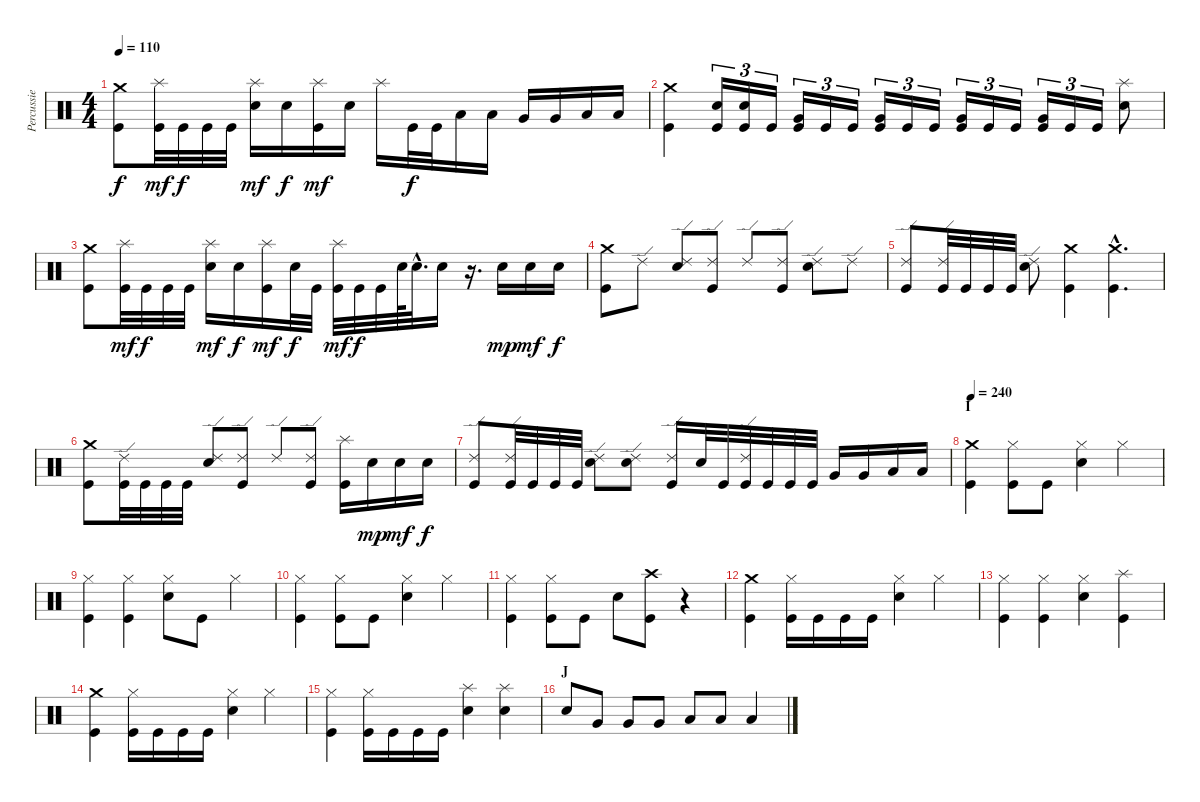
\track ("Percussie" "Percussie") {instrument percussion}
\staff {score}
\articulation defaults
\ts (4 4)
\tempo 110
\clef neutral
\ks c
("Crash medium (hit)" "Kick (hit)").8{dy f} ("Splash (hit)" "Kick (hit)").32{dy mf} "Kick (hit)".32{dy f} "Kick (hit)".32 "Kick (hit)".32 ("Splash (hit)" "Electric Snare (hit)").16{dy mf} "Electric Snare (hit)".16{dy f} ("Splash (hit)" "Kick (hit)").16{dy mf} "Electric Snare (hit)".16 "Splash (hit)".16 "Kick (hit)".32{dy f} "Kick (hit)".32 "Low Tom (hit)".16 "Low Tom (hit)".16 "Very Low Tom (hit)".16 "Very Low Tom (hit)".16 "Low Floor Tom (hit)".16 "Low Floor Tom (hit)".16 |
("Crash medium (hit)" "Kick (hit)").4 ("Electric Snare (hit)" "Kick (hit)").16{tu (3 2)} ("Electric Snare (hit)" "Kick (hit)").16{tu (3 2)} "Kick (hit)".16{tu (3 2)} ("Very Low Tom (hit)" "Kick (hit)").16{tu (3 2)} "Kick (hit)".16{tu (3 2)} "Kick (hit)".16{tu (3 2)} ("Very Low Tom (hit)" "Kick (hit)").16{tu (3 2)} "Kick (hit)".16{tu (3 2)} "Kick (hit)".16{tu (3 2)} ("Very Low Tom (hit)" "Kick (hit)").16{tu (3 2)} "Kick (hit)".16{tu (3 2)} "Kick (hit)".16{tu (3 2)} ("Very Low Tom (hit)" "Kick (hit)").16{tu (3 2)} "Kick (hit)".16{tu (3 2)} "Kick (hit)".16{tu (3 2)} ("Splash (hit)" "Electric Snare (hit)").8 |
("Crash medium (hit)" "Kick (hit)").8 ("Splash (hit)" "Kick (hit)").32{dy mf} "Kick (hit)".32{dy f} "Kick (hit)".32 "Kick (hit)".32 ("Splash (hit)" "Electric Snare (hit)").16{dy mf} "Electric Snare (hit)".16{dy f} ("Splash (hit)" "Kick (hit)").16{dy mf} "Electric Snare (hit)".32{dy f} "Kick (hit)".32 ("Splash (hit)" "Kick (hit)").32{dy mf} "Kick (hit)".32{dy f} "Kick (hit)".32 "Electric Snare (hit)".64 "Electric Snare (hit)"{hac}.32{d} "Electric Snare (hit)".16 r.16{d} "Electric Snare (hit)".16{dy mp} "Electric Snare (hit)".16{dy mf} "Electric Snare (hit)".16{dy f} |
("Crash medium (hit)" "Kick (hit)").8 "Ride (edge) 2".8 ("Ride (edge) 2" "Electric Snare (hit)").8 ("Ride (edge) 2" "Kick (hit)").8 "Ride (edge) 2".8 ("Ride (edge) 2" "Kick (hit)").8 ("Ride (edge) 2" "Electric Snare (hit)").8 "Ride (edge) 2".8 |
("Ride (edge) 2" "Kick (hit)").8 ("Ride (edge) 2" "Kick (hit)").32 "Kick (hit)".32 "Kick (hit)".32 "Kick (hit)".32 ("Ride (edge) 2" "Electric Snare (hit)").8 ("Crash medium (hit)" "Kick (hit)").4 ("Crash medium (hit)"{hac} "Kick (hit)"{hac}).4{d} |
("Crash medium (hit)" "Kick (hit)").8 ("Ride (edge) 2" "Kick (hit)").32 "Kick (hit)".32 "Kick (hit)".32 "Kick (hit)".32 ("Ride (edge) 2" "Electric Snare (hit)").8 ("Ride (edge) 2" "Kick (hit)").8 "Ride (edge) 2".8 ("Ride (edge) 2" "Kick (hit)").8 ("Splash (hit)" "Kick (hit)").16 "Electric Snare (hit)".16{dy mp} "Electric Snare (hit)".16{dy mf} "Electric Snare (hit)".16{dy f} |
("Ride (edge) 2" "Kick (hit)").8 ("Ride (edge) 2" "Kick (hit)").32 "Kick (hit)".32 "Kick (hit)".32 "Kick (hit)".32 ("Ride (edge) 2" "Electric Snare (hit)").8 ("Ride (edge) 2" "Electric Snare (hit)").8 ("Ride (edge) 2" "Kick (hit)").16 "Electric Snare (hit)".32 "Kick (hit)".32 ("Ride (edge) 2" "Kick (hit)").32 "Kick (hit)".32 "Kick (hit)".32 "Kick (hit)".32 "Very Low Tom (hit)".16 "Very Low Tom (hit)".16 "Low Floor Tom (hit)".16 "Low Floor Tom (hit)".16 |
\section ("" "I")
\tempo 240
("Crash medium (hit)" "Kick (hit)").4 ("Hi-Hat (closed)" "Kick (hit)").8 "Kick (hit)".8 ("Hi-Hat (closed)" "Electric Snare (hit)").4 "Hi-Hat (closed)".4 |
("Hi-Hat (closed)" "Kick (hit)").4 ("Hi-Hat (closed)" "Kick (hit)").4 ("Hi-Hat (closed)" "Electric Snare (hit)").8 "Kick (hit)".8 "Hi-Hat (closed)".4 |
("Hi-Hat (closed)" "Kick (hit)").4 ("Hi-Hat (closed)" "Kick (hit)").8 "Kick (hit)".8 ("Hi-Hat (closed)" "Electric Snare (hit)").4 "Hi-Hat (closed)".4 |
("Hi-Hat (closed)" "Kick (hit)").4 ("Hi-Hat (closed)" "Kick (hit)").8 "Kick (hit)".8 "Electric Snare (hit)".8 ("Crash high (hit)" "Kick (hit)").8 r.4 |
("Crash medium (hit)" "Kick (hit)").4 ("Hi-Hat (closed)" "Kick (hit)").16 "Kick (hit)".16 "Kick (hit)".16 "Kick (hit)".16 ("Hi-Hat (closed)" "Electric Snare (hit)").4 "Hi-Hat (closed)".4 |
("Hi-Hat (closed)" "Kick (hit)").4 ("Hi-Hat (closed)" "Kick (hit)").4 ("Hi-Hat (closed)" "Electric Snare (hit)").4 ("Splash (hit)" "Kick (hit)").4 |
("Crash medium (hit)" "Kick (hit)").4 ("Hi-Hat (closed)" "Kick (hit)").16 "Kick (hit)".16 "Kick (hit)".16 "Kick (hit)".16 ("Hi-Hat (closed)" "Electric Snare (hit)").4 "Hi-Hat (closed)".4 |
("Hi-Hat (closed)" "Kick (hit)").4 ("Hi-Hat (closed)" "Kick (hit)").16 "Kick (hit)".16 "Kick (hit)".16 "Kick (hit)".16 ("Splash (hit)" "Electric Snare (hit)").4 ("Splash (hit)" "Electric Snare (hit)").4 |
\section ("" "J")
"Electric Snare (hit)".8 "Very Low Tom (hit)".8 "Very Low Tom (hit)".8 "Very Low Tom (hit)".8 "Low Floor Tom (hit)".8 "Low Floor Tom (hit)".8 "Low Floor Tom (hit)".4
